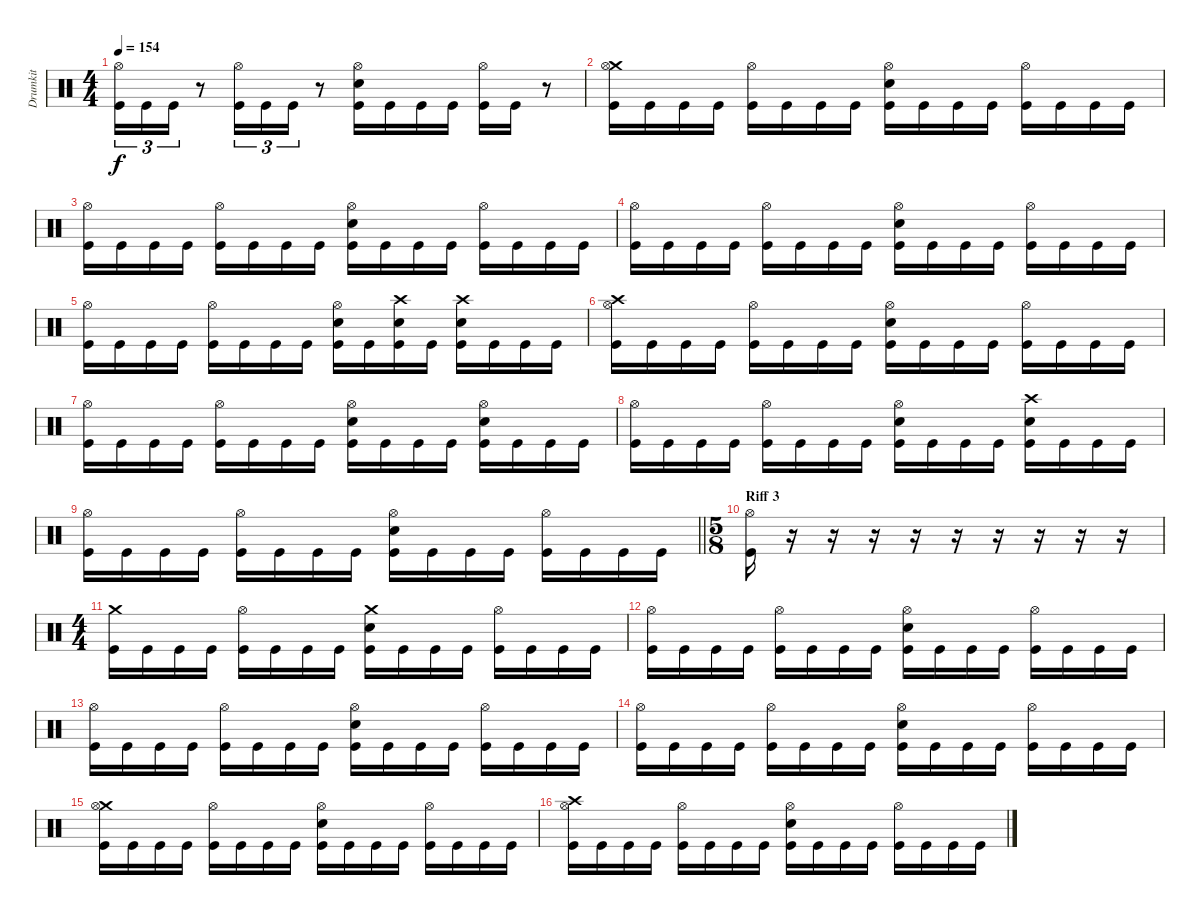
\track ("Drumkit" "Drumkit") {mute instrument percussion}
\staff {score}
\articulation defaults
\ts (4 4)
\tempo 154
\clef neutral
\ks c
("Hi-Hat (open)" "Kick (hit)").16{tu (3 2) dy f} "Kick (hit)".16{tu (3 2)} "Kick (hit)".16{tu (3 2)} r.8 ("Hi-Hat (open)" "Kick (hit)").16{tu (3 2)} "Kick (hit)".16{tu (3 2)} "Kick (hit)".16{tu (3 2)} r.8 ("Hi-Hat (open)" "Snare (hit) 2" "Kick (hit)").16 "Kick (hit)".16 "Kick (hit)".16 "Kick (hit)".16 ("Hi-Hat (open)" "Kick (hit)").16 "Kick (hit)".16 r.8 |
("Crash medium (hit)" "Hi-Hat (open)" "Kick (hit)").16 "Kick (hit)".16 "Kick (hit)".16 "Kick (hit)".16 ("Hi-Hat (open)" "Kick (hit)").16 "Kick (hit)".16 "Kick (hit)".16 "Kick (hit)".16 ("Hi-Hat (open)" "Snare (hit) 2" "Kick (hit)").16 "Kick (hit)".16 "Kick (hit)".16 "Kick (hit)".16 ("Hi-Hat (open)" "Kick (hit)").16 "Kick (hit)".16 "Kick (hit)".16 "Kick (hit)".16 |
("Hi-Hat (open)" "Kick (hit)").16 "Kick (hit)".16 "Kick (hit)".16 "Kick (hit)".16 ("Hi-Hat (open)" "Kick (hit)").16 "Kick (hit)".16 "Kick (hit)".16 "Kick (hit)".16 ("Hi-Hat (open)" "Snare (hit) 2" "Kick (hit)").16 "Kick (hit)".16 "Kick (hit)".16 "Kick (hit)".16 ("Hi-Hat (open)" "Kick (hit)").16 "Kick (hit)".16 "Kick (hit)".16 "Kick (hit)".16 |
("Hi-Hat (open)" "Kick (hit)").16 "Kick (hit)".16 "Kick (hit)".16 "Kick (hit)".16 ("Hi-Hat (open)" "Kick (hit)").16 "Kick (hit)".16 "Kick (hit)".16 "Kick (hit)".16 ("Hi-Hat (open)" "Snare (hit) 2" "Kick (hit)").16 "Kick (hit)".16 "Kick (hit)".16 "Kick (hit)".16 ("Hi-Hat (open)" "Kick (hit)").16 "Kick (hit)".16 "Kick (hit)".16 "Kick (hit)".16 |
("Hi-Hat (open)" "Kick (hit)").16 "Kick (hit)".16 "Kick (hit)".16 "Kick (hit)".16 ("Hi-Hat (open)" "Kick (hit)").16 "Kick (hit)".16 "Kick (hit)".16 "Kick (hit)".16 ("Hi-Hat (open)" "Snare (hit) 2" "Kick (hit)").16 "Kick (hit)".16 ("Crash high (hit)" "Snare (hit) 2" "Kick (hit)").16 "Kick (hit)".16 ("Crash high (hit)" "Snare (hit) 2" "Kick (hit)").16 "Kick (hit)".16 "Kick (hit)".16 "Kick (hit)".16 |
("Crash high (hit)" "Hi-Hat (open)" "Kick (hit)").16 "Kick (hit)".16 "Kick (hit)".16 "Kick (hit)".16 ("Hi-Hat (open)" "Kick (hit)").16 "Kick (hit)".16 "Kick (hit)".16 "Kick (hit)".16 ("Hi-Hat (open)" "Snare (hit) 2" "Kick (hit)").16 "Kick (hit)".16 "Kick (hit)".16 "Kick (hit)".16 ("Hi-Hat (open)" "Kick (hit)").16 "Kick (hit)".16 "Kick (hit)".16 "Kick (hit)".16 |
("Hi-Hat (open)" "Kick (hit)").16 "Kick (hit)".16 "Kick (hit)".16 "Kick (hit)".16 ("Hi-Hat (open)" "Kick (hit)").16 "Kick (hit)".16 "Kick (hit)".16 "Kick (hit)".16 ("Hi-Hat (open)" "Snare (hit) 2" "Kick (hit)").16 "Kick (hit)".16 "Kick (hit)".16 "Kick (hit)".16 ("Hi-Hat (open)" "Snare (hit) 2" "Kick (hit)").16 "Kick (hit)".16 "Kick (hit)".16 "Kick (hit)".16 |
("Hi-Hat (open)" "Kick (hit)").16 "Kick (hit)".16 "Kick (hit)".16 "Kick (hit)".16 ("Hi-Hat (open)" "Kick (hit)").16 "Kick (hit)".16 "Kick (hit)".16 "Kick (hit)".16 ("Hi-Hat (open)" "Snare (hit) 2" "Kick (hit)").16 "Kick (hit)".16 "Kick (hit)".16 "Kick (hit)".16 ("Crash high (hit)" "Snare (hit) 2" "Kick (hit)").16 "Kick (hit)".16 "Kick (hit)".16 "Kick (hit)".16 |
\barLineRight lightlight
("Hi-Hat (open)" "Kick (hit)").16 "Kick (hit)".16 "Kick (hit)".16 "Kick (hit)".16 ("Hi-Hat (open)" "Kick (hit)").16 "Kick (hit)".16 "Kick (hit)".16 "Kick (hit)".16 ("Hi-Hat (open)" "Snare (hit) 2" "Kick (hit)").16 "Kick (hit)".16 "Kick (hit)".16 "Kick (hit)".16 ("Hi-Hat (open)" "Kick (hit)").16 "Kick (hit)".16 "Kick (hit)".16 "Kick (hit)".16 |
\ts (5 8)
\section ("" "Riff 3")
("Hi-Hat (open)" "Kick (hit)").16 r.16 r.16 r.16 r.16 r.16 r.16 r.16 r.16 r.16 |
\ts (4 4)
("Crash medium (hit)" "Kick (hit)").16 "Kick (hit)".16 "Kick (hit)".16 "Kick (hit)".16 ("Hi-Hat (open)" "Kick (hit)").16 "Kick (hit)".16 "Kick (hit)".16 "Kick (hit)".16 ("Crash medium (hit)" "Snare (hit) 2" "Kick (hit)").16 "Kick (hit)".16 "Kick (hit)".16 "Kick (hit)".16 ("Hi-Hat (open)" "Kick (hit)").16 "Kick (hit)".16 "Kick (hit)".16 "Kick (hit)".16 |
("Hi-Hat (open)" "Kick (hit)").16 "Kick (hit)".16 "Kick (hit)".16 "Kick (hit)".16 ("Hi-Hat (open)" "Kick (hit)").16 "Kick (hit)".16 "Kick (hit)".16 "Kick (hit)".16 ("Hi-Hat (open)" "Snare (hit) 2" "Kick (hit)").16 "Kick (hit)".16 "Kick (hit)".16 "Kick (hit)".16 ("Hi-Hat (open)" "Kick (hit)").16 "Kick (hit)".16 "Kick (hit)".16 "Kick (hit)".16 |
("Hi-Hat (open)" "Kick (hit)").16 "Kick (hit)".16 "Kick (hit)".16 "Kick (hit)".16 ("Hi-Hat (open)" "Kick (hit)").16 "Kick (hit)".16 "Kick (hit)".16 "Kick (hit)".16 ("Hi-Hat (open)" "Snare (hit) 2" "Kick (hit)").16 "Kick (hit)".16 "Kick (hit)".16 "Kick (hit)".16 ("Hi-Hat (open)" "Kick (hit)").16 "Kick (hit)".16 "Kick (hit)".16 "Kick (hit)".16 |
("Hi-Hat (open)" "Kick (hit)").16 "Kick (hit)".16 "Kick (hit)".16 "Kick (hit)".16 ("Hi-Hat (open)" "Kick (hit)").16 "Kick (hit)".16 "Kick (hit)".16 "Kick (hit)".16 ("Hi-Hat (open)" "Snare (hit) 2" "Kick (hit)").16 "Kick (hit)".16 "Kick (hit)".16 "Kick (hit)".16 ("Hi-Hat (open)" "Kick (hit)").16 "Kick (hit)".16 "Kick (hit)".16 "Kick (hit)".16 |
("Crash medium (hit)" "Hi-Hat (open)" "Kick (hit)").16 "Kick (hit)".16 "Kick (hit)".16 "Kick (hit)".16 ("Hi-Hat (open)" "Kick (hit)").16 "Kick (hit)".16 "Kick (hit)".16 "Kick (hit)".16 ("Hi-Hat (open)" "Snare (hit) 2" "Kick (hit)").16 "Kick (hit)".16 "Kick (hit)".16 "Kick (hit)".16 ("Hi-Hat (open)" "Kick (hit)").16 "Kick (hit)".16 "Kick (hit)".16 "Kick (hit)".16 |
("Crash high (hit)" "Hi-Hat (open)" "Kick (hit)").16 "Kick (hit)".16 "Kick (hit)".16 "Kick (hit)".16 ("Hi-Hat (open)" "Kick (hit)").16 "Kick (hit)".16 "Kick (hit)".16 "Kick (hit)".16 ("Hi-Hat (open)" "Snare (hit) 2" "Kick (hit)").16 "Kick (hit)".16 "Kick (hit)".16 "Kick (hit)".16 ("Hi-Hat (open)" "Kick (hit)").16 "Kick (hit)".16 "Kick (hit)".16 "Kick (hit)".16
